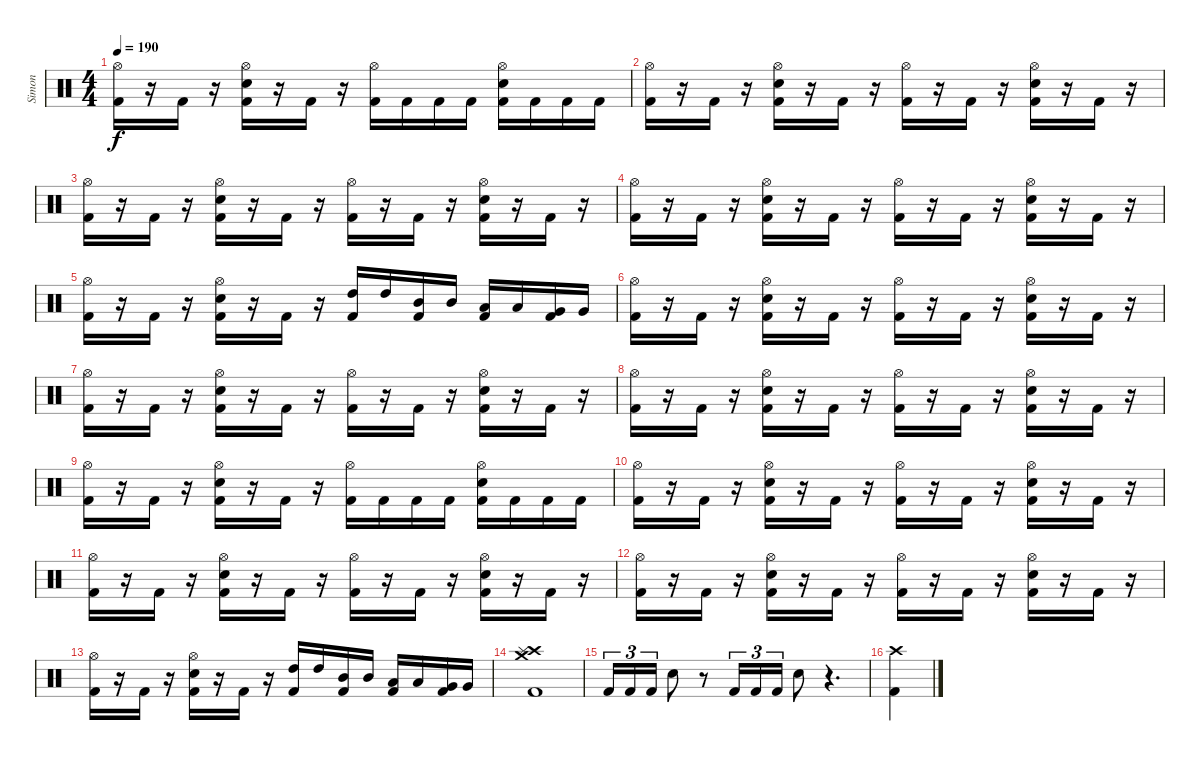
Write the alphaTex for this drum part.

\track ("Simon" "Simon") {instrument percussion}
\staff {score}
\articulation defaults
\ts (4 4)
\tempo 190
\clef neutral
\ks c
("Hi-Hat (open)" "Kick (hit) 2").16{dy f} r.16 "Kick (hit) 2".16 r.16 ("Hi-Hat (open)" "Snare (hit) 2" "Kick (hit) 2").16 r.16 "Kick (hit) 2".16 r.16 ("Hi-Hat (open)" "Kick (hit) 2").16 "Kick (hit) 2".16 "Kick (hit) 2".16 "Kick (hit) 2".16 ("Hi-Hat (open)" "Snare (hit) 2" "Kick (hit) 2").16 "Kick (hit) 2".16 "Kick (hit) 2".16 "Kick (hit) 2".16 |
("Hi-Hat (open)" "Kick (hit) 2").16 r.16 "Kick (hit) 2".16 r.16 ("Hi-Hat (open)" "Snare (hit) 2" "Kick (hit) 2").16 r.16 "Kick (hit) 2".16 r.16 ("Hi-Hat (open)" "Kick (hit) 2").16 r.16 "Kick (hit) 2".16 r.16 ("Hi-Hat (open)" "Snare (hit) 2" "Kick (hit) 2").16 r.16 "Kick (hit) 2".16 r.16 |
("Hi-Hat (open)" "Kick (hit) 2").16 r.16 "Kick (hit) 2".16 r.16 ("Hi-Hat (open)" "Snare (hit) 2" "Kick (hit) 2").16 r.16 "Kick (hit) 2".16 r.16 ("Hi-Hat (open)" "Kick (hit) 2").16 r.16 "Kick (hit) 2".16 r.16 ("Hi-Hat (open)" "Snare (hit) 2" "Kick (hit) 2").16 r.16 "Kick (hit) 2".16 r.16 |
("Hi-Hat (open)" "Kick (hit) 2").16 r.16 "Kick (hit) 2".16 r.16 ("Hi-Hat (open)" "Snare (hit) 2" "Kick (hit) 2").16 r.16 "Kick (hit) 2".16 r.16 ("Hi-Hat (open)" "Kick (hit) 2").16 r.16 "Kick (hit) 2".16 r.16 ("Hi-Hat (open)" "Snare (hit) 2" "Kick (hit) 2").16 r.16 "Kick (hit) 2".16 r.16 |
("Hi-Hat (open)" "Kick (hit) 2").16 r.16 "Kick (hit) 2".16 r.16 ("Hi-Hat (open)" "Snare (hit) 2" "Kick (hit) 2").16 r.16 "Kick (hit) 2".16 r.16 ("High Tom (hit)" "Kick (hit) 2").16 "High Tom (hit)".16 ("Mid Tom (hit)" "Kick (hit) 2").16 "Mid Tom (hit)".16 ("Low Tom (hit)" "Kick (hit) 2").16 "Low Tom (hit)".16 ("Very Low Tom (hit)" "Kick (hit) 2").16 "Very Low Tom (hit)".16 |
("Hi-Hat (open)" "Kick (hit) 2").16 r.16 "Kick (hit) 2".16 r.16 ("Hi-Hat (open)" "Snare (hit) 2" "Kick (hit) 2").16 r.16 "Kick (hit) 2".16 r.16 ("Hi-Hat (open)" "Kick (hit) 2").16 r.16 "Kick (hit) 2".16 r.16 ("Hi-Hat (open)" "Snare (hit) 2" "Kick (hit) 2").16 r.16 "Kick (hit) 2".16 r.16 |
("Hi-Hat (open)" "Kick (hit) 2").16 r.16 "Kick (hit) 2".16 r.16 ("Hi-Hat (open)" "Snare (hit) 2" "Kick (hit) 2").16 r.16 "Kick (hit) 2".16 r.16 ("Hi-Hat (open)" "Kick (hit) 2").16 r.16 "Kick (hit) 2".16 r.16 ("Hi-Hat (open)" "Snare (hit) 2" "Kick (hit) 2").16 r.16 "Kick (hit) 2".16 r.16 |
("Hi-Hat (open)" "Kick (hit) 2").16 r.16 "Kick (hit) 2".16 r.16 ("Hi-Hat (open)" "Snare (hit) 2" "Kick (hit) 2").16 r.16 "Kick (hit) 2".16 r.16 ("Hi-Hat (open)" "Kick (hit) 2").16 r.16 "Kick (hit) 2".16 r.16 ("Hi-Hat (open)" "Snare (hit) 2" "Kick (hit) 2").16 r.16 "Kick (hit) 2".16 r.16 |
("Hi-Hat (open)" "Kick (hit) 2").16 r.16 "Kick (hit) 2".16 r.16 ("Hi-Hat (open)" "Snare (hit) 2" "Kick (hit) 2").16 r.16 "Kick (hit) 2".16 r.16 ("Hi-Hat (open)" "Kick (hit) 2").16 "Kick (hit) 2".16 "Kick (hit) 2".16 "Kick (hit) 2".16 ("Hi-Hat (open)" "Snare (hit) 2" "Kick (hit) 2").16 "Kick (hit) 2".16 "Kick (hit) 2".16 "Kick (hit) 2".16 |
("Hi-Hat (open)" "Kick (hit) 2").16 r.16 "Kick (hit) 2".16 r.16 ("Hi-Hat (open)" "Snare (hit) 2" "Kick (hit) 2").16 r.16 "Kick (hit) 2".16 r.16 ("Hi-Hat (open)" "Kick (hit) 2").16 r.16 "Kick (hit) 2".16 r.16 ("Hi-Hat (open)" "Snare (hit) 2" "Kick (hit) 2").16 r.16 "Kick (hit) 2".16 r.16 |
("Hi-Hat (open)" "Kick (hit) 2").16 r.16 "Kick (hit) 2".16 r.16 ("Hi-Hat (open)" "Snare (hit) 2" "Kick (hit) 2").16 r.16 "Kick (hit) 2".16 r.16 ("Hi-Hat (open)" "Kick (hit) 2").16 r.16 "Kick (hit) 2".16 r.16 ("Hi-Hat (open)" "Snare (hit) 2" "Kick (hit) 2").16 r.16 "Kick (hit) 2".16 r.16 |
("Hi-Hat (open)" "Kick (hit) 2").16 r.16 "Kick (hit) 2".16 r.16 ("Hi-Hat (open)" "Snare (hit) 2" "Kick (hit) 2").16 r.16 "Kick (hit) 2".16 r.16 ("Hi-Hat (open)" "Kick (hit) 2").16 r.16 "Kick (hit) 2".16 r.16 ("Hi-Hat (open)" "Snare (hit) 2" "Kick (hit) 2").16 r.16 "Kick (hit) 2".16 r.16 |
("Hi-Hat (open)" "Kick (hit) 2").16 r.16 "Kick (hit) 2".16 r.16 ("Hi-Hat (open)" "Snare (hit) 2" "Kick (hit) 2").16 r.16 "Kick (hit) 2".16 r.16 ("High Tom (hit)" "Kick (hit) 2").16 "High Tom (hit)".16 ("Mid Tom (hit)" "Kick (hit) 2").16 "Mid Tom (hit)".16 ("Low Tom (hit)" "Kick (hit) 2").16 "Low Tom (hit)".16 ("Very Low Tom (hit)" "Kick (hit) 2").16 "Very Low Tom (hit)".16 |
("Crash high (hit)" "Crash medium (hit)" "Splash (hit)" "Kick (hit) 2").1 |
"Kick (hit) 2".16{tu (3 2)} "Kick (hit) 2".16{tu (3 2)} "Kick (hit) 2".16{tu (3 2)} "Snare (hit) 2".8 r.8 "Kick (hit) 2".16{tu (3 2)} "Kick (hit) 2".16{tu (3 2)} "Kick (hit) 2".16{tu (3 2)} "Snare (hit) 2".8 r.4{d} |
("Crash high (hit)" "Kick (hit) 2").4
